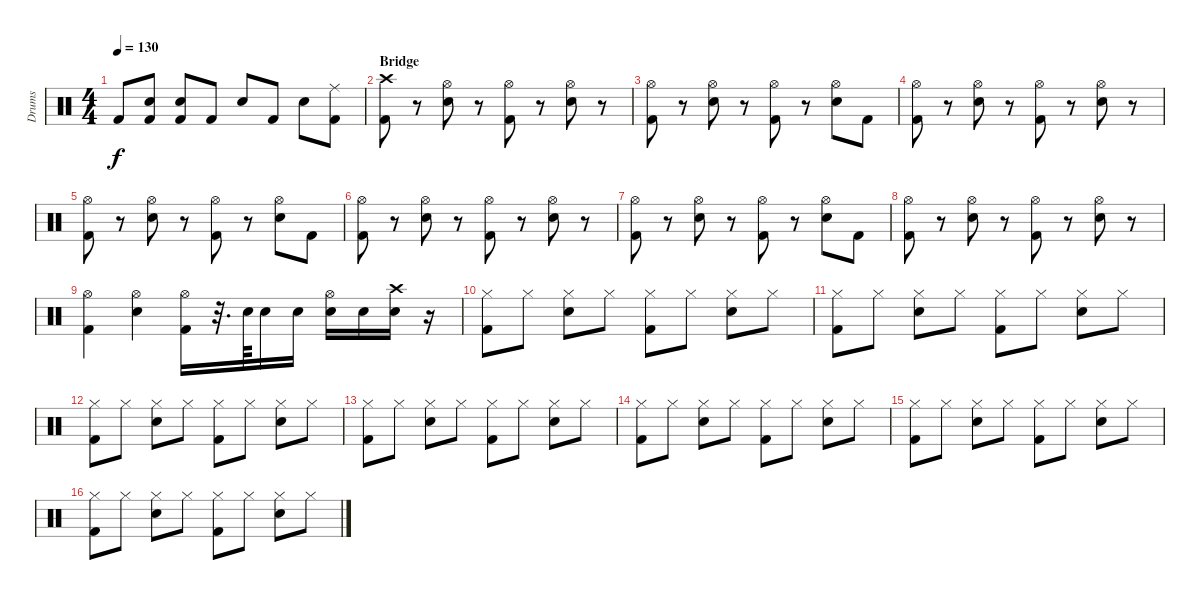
\track ("Drums" "Drums") {instrument percussion}
\staff {score}
\articulation defaults
\ts (4 4)
\tempo 130
\clef neutral
\ks c "Kick (hit) 2".8{dy f}
("Snare (hit) 2" "Kick (hit) 2").8 ("Snare (hit) 2" "Kick (hit) 2").8 "Kick (hit) 2".8 "Snare (hit) 2".8 "Kick (hit) 2".8 "Snare (hit) 2".8 ("Ride (middle)" "Kick (hit) 2").8 |
\section ("" "Bridge")
("Crash high (hit)" "Kick (hit) 2").8 r.8 ("Hi-Hat (open)" "Snare (hit) 2").8 r.8 ("Hi-Hat (open)" "Kick (hit) 2").8 r.8 ("Hi-Hat (open)" "Snare (hit) 2").8 r.8 |
("Hi-Hat (open)" "Kick (hit) 2").8 r.8 ("Hi-Hat (open)" "Snare (hit) 2").8 r.8 ("Hi-Hat (open)" "Kick (hit) 2").8 r.8 ("Hi-Hat (open)" "Snare (hit) 2").8 "Kick (hit) 2".8 |
("Hi-Hat (open)" "Kick (hit) 2").8 r.8 ("Hi-Hat (open)" "Snare (hit) 2").8 r.8 ("Hi-Hat (open)" "Kick (hit) 2").8 r.8 ("Hi-Hat (open)" "Snare (hit) 2").8 r.8 |
("Hi-Hat (open)" "Kick (hit) 2").8 r.8 ("Hi-Hat (open)" "Snare (hit) 2").8 r.8 ("Hi-Hat (open)" "Kick (hit) 2").8 r.8 ("Hi-Hat (open)" "Snare (hit) 2").8 "Kick (hit) 2".8 |
("Hi-Hat (open)" "Kick (hit) 2").8 r.8 ("Hi-Hat (open)" "Snare (hit) 2").8 r.8 ("Hi-Hat (open)" "Kick (hit) 2").8 r.8 ("Hi-Hat (open)" "Snare (hit) 2").8 r.8 |
("Hi-Hat (open)" "Kick (hit) 2").8 r.8 ("Hi-Hat (open)" "Snare (hit) 2").8 r.8 ("Hi-Hat (open)" "Kick (hit) 2").8 r.8 ("Hi-Hat (open)" "Snare (hit) 2").8 "Kick (hit) 2".8 |
("Hi-Hat (open)" "Kick (hit) 2").8 r.8 ("Hi-Hat (open)" "Snare (hit) 2").8 r.8 ("Hi-Hat (open)" "Kick (hit) 2").8 r.8 ("Hi-Hat (open)" "Snare (hit) 2").8 r.8 |
("Hi-Hat (open)" "Kick (hit) 2").4 ("Hi-Hat (open)" "Snare (hit) 2").4 ("Hi-Hat (open)" "Kick (hit) 2").16 r.32{d} "Snare (hit) 2".64 "Snare (hit) 2".16 "Snare (hit) 2".16 ("Snare (hit) 2" "Hi-Hat (open)").16 "Snare (hit) 2".16 ("Snare (hit) 2" "Crash high (hit)").16 r.16 |
("Hi-Hat (closed)" "Kick (hit) 2").8 "Hi-Hat (closed)".8 ("Hi-Hat (closed)" "Snare (hit) 2").8 "Hi-Hat (closed)".8 ("Hi-Hat (closed)" "Kick (hit) 2").8 "Hi-Hat (closed)".8 ("Hi-Hat (closed)" "Snare (hit) 2").8 "Hi-Hat (closed)".8 |
("Hi-Hat (closed)" "Kick (hit) 2").8 "Hi-Hat (closed)".8 ("Hi-Hat (closed)" "Snare (hit) 2").8 "Hi-Hat (closed)".8 ("Hi-Hat (closed)" "Kick (hit) 2").8 "Hi-Hat (closed)".8 ("Hi-Hat (closed)" "Snare (hit) 2").8 "Hi-Hat (closed)".8 |
("Hi-Hat (closed)" "Kick (hit) 2").8 "Hi-Hat (closed)".8 ("Hi-Hat (closed)" "Snare (hit) 2").8 "Hi-Hat (closed)".8 ("Hi-Hat (closed)" "Kick (hit) 2").8 "Hi-Hat (closed)".8 ("Hi-Hat (closed)" "Snare (hit) 2").8 "Hi-Hat (closed)".8 |
("Hi-Hat (closed)" "Kick (hit) 2").8 "Hi-Hat (closed)".8 ("Hi-Hat (closed)" "Snare (hit) 2").8 "Hi-Hat (closed)".8 ("Hi-Hat (closed)" "Kick (hit) 2").8 "Hi-Hat (closed)".8 ("Hi-Hat (closed)" "Snare (hit) 2").8 "Hi-Hat (closed)".8 |
("Hi-Hat (closed)" "Kick (hit) 2").8 "Hi-Hat (closed)".8 ("Hi-Hat (closed)" "Snare (hit) 2").8 "Hi-Hat (closed)".8 ("Hi-Hat (closed)" "Kick (hit) 2").8 "Hi-Hat (closed)".8 ("Hi-Hat (closed)" "Snare (hit) 2").8 "Hi-Hat (closed)".8 |
("Hi-Hat (closed)" "Kick (hit) 2").8 "Hi-Hat (closed)".8 ("Hi-Hat (closed)" "Snare (hit) 2").8 "Hi-Hat (closed)".8 ("Hi-Hat (closed)" "Kick (hit) 2").8 "Hi-Hat (closed)".8 ("Hi-Hat (closed)" "Snare (hit) 2").8 "Hi-Hat (closed)".8 |
("Hi-Hat (closed)" "Kick (hit) 2").8 "Hi-Hat (closed)".8 ("Hi-Hat (closed)" "Snare (hit) 2").8 "Hi-Hat (closed)".8 ("Hi-Hat (closed)" "Kick (hit) 2").8 "Hi-Hat (closed)".8 ("Hi-Hat (closed)" "Snare (hit) 2").8 "Hi-Hat (closed)".8
